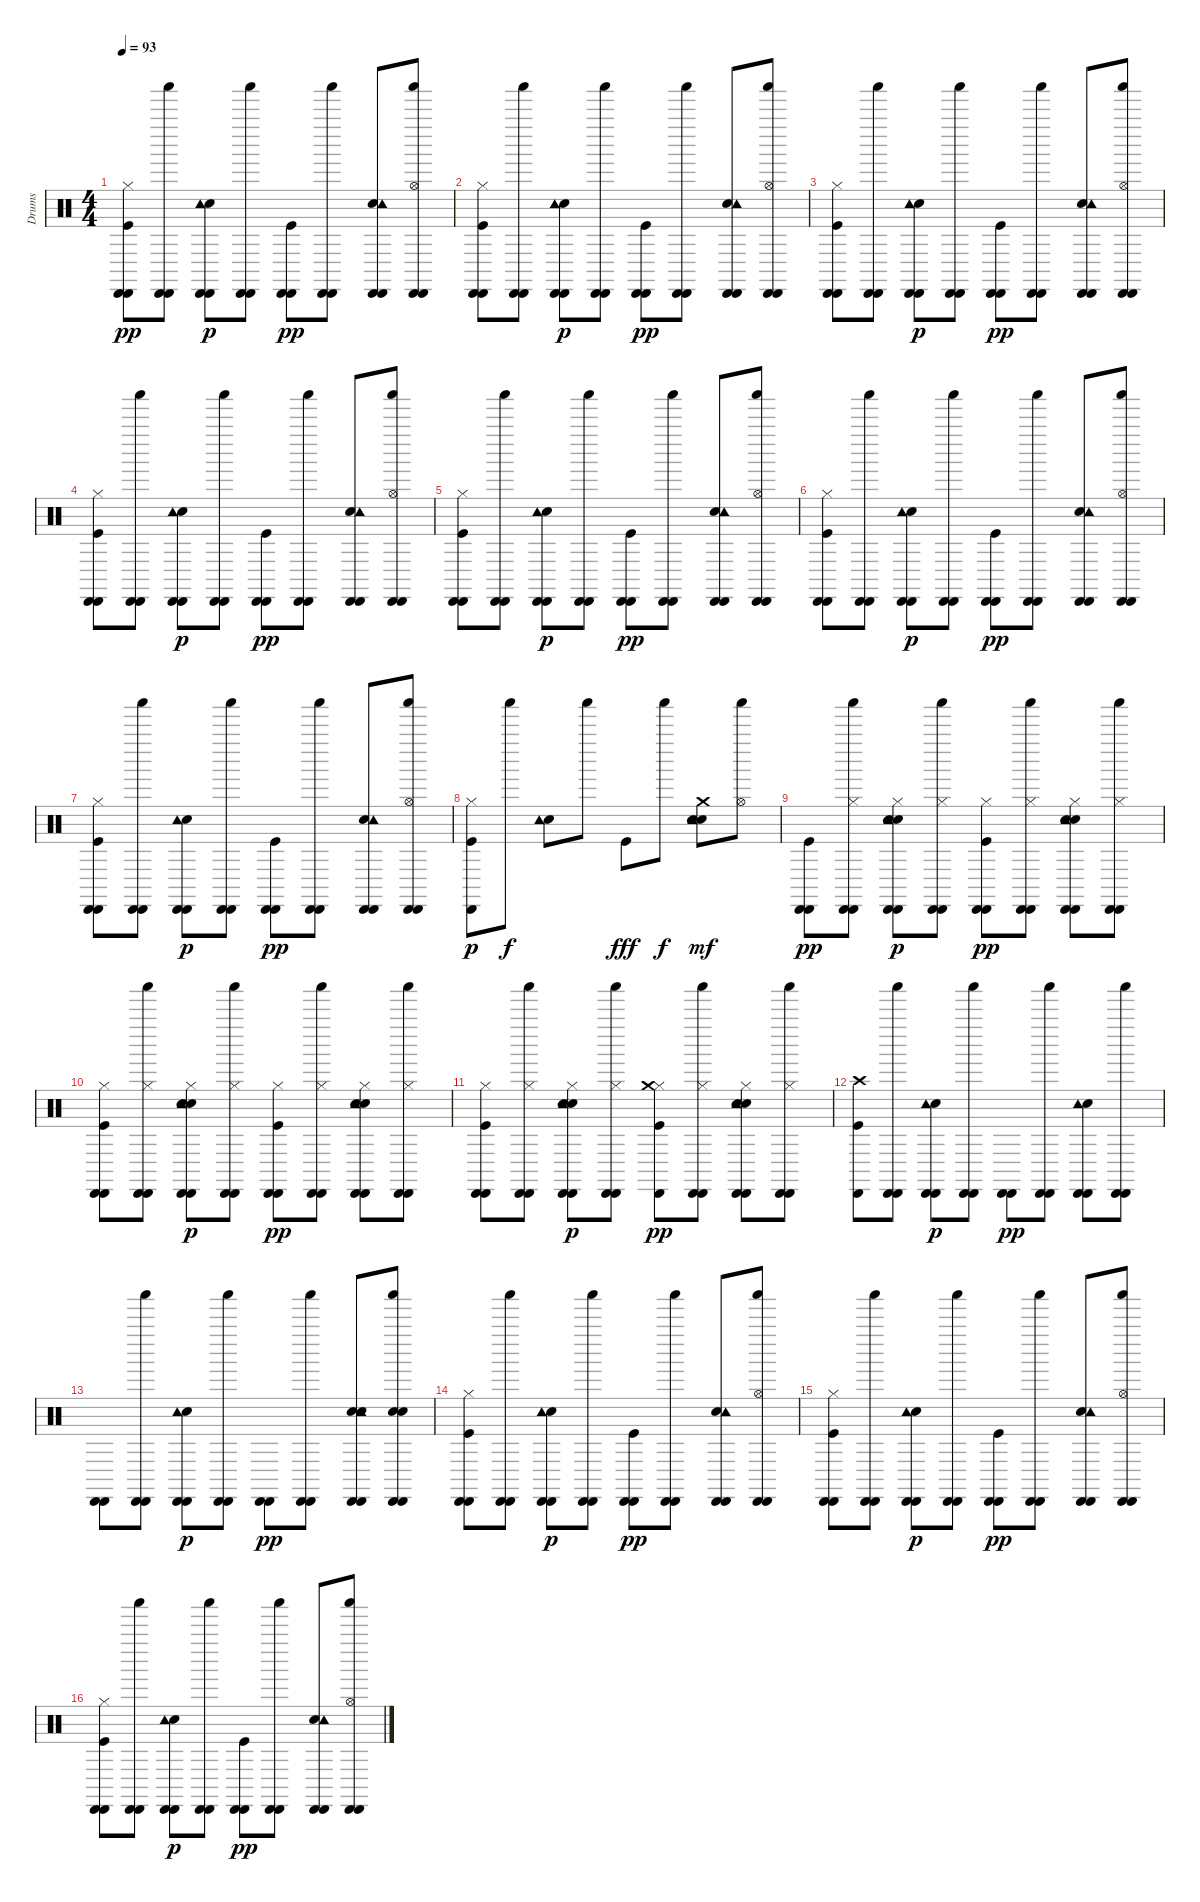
\track ("Drums" "Drums") {instrument percussion}
\staff {score}
\articulation defaults
\ts (4 4)
\tempo 93
\clef neutral
\ks c
("Kick (hit)" "Hi-Hat (closed)" "Cabasa (hit)" "Cabasa (hit)").8{dy pp} ("Cabasa (hit)" "Shaker (hit)" "Cabasa (hit)").8 ("Hand Clap (hit)" "Tambourine (hit)" "Cabasa (hit)" "Cabasa (hit)").8{dy p} ("Cabasa (hit)" "Shaker (hit)" "Cabasa (hit)").8 ("Kick (hit)" "Cabasa (hit)" "Cabasa (hit)").8{dy pp} ("Cabasa (hit)" "Shaker (hit)" "Cabasa (hit)").8 ("Hand Clap (hit)" "Tambourine (hit)" "Cabasa (hit)" "Cabasa (hit)").8 ("Cabasa (hit)" "Shaker (hit)" "Hi-Hat (open)" "Cabasa (hit)").8 |
("Kick (hit)" "Hi-Hat (closed)" "Cabasa (hit)" "Cabasa (hit)").8 ("Cabasa (hit)" "Shaker (hit)" "Cabasa (hit)").8 ("Hand Clap (hit)" "Tambourine (hit)" "Cabasa (hit)" "Cabasa (hit)").8{dy p} ("Cabasa (hit)" "Shaker (hit)" "Cabasa (hit)").8 ("Kick (hit)" "Cabasa (hit)" "Cabasa (hit)").8{dy pp} ("Cabasa (hit)" "Shaker (hit)" "Cabasa (hit)").8 ("Hand Clap (hit)" "Tambourine (hit)" "Cabasa (hit)" "Cabasa (hit)").8 ("Cabasa (hit)" "Shaker (hit)" "Hi-Hat (open)" "Cabasa (hit)").8 |
("Kick (hit)" "Hi-Hat (closed)" "Cabasa (hit)" "Cabasa (hit)").8 ("Cabasa (hit)" "Shaker (hit)" "Cabasa (hit)").8 ("Hand Clap (hit)" "Tambourine (hit)" "Cabasa (hit)" "Cabasa (hit)").8{dy p} ("Cabasa (hit)" "Shaker (hit)" "Cabasa (hit)").8 ("Kick (hit)" "Cabasa (hit)" "Cabasa (hit)").8{dy pp} ("Cabasa (hit)" "Shaker (hit)" "Cabasa (hit)").8 ("Hand Clap (hit)" "Tambourine (hit)" "Cabasa (hit)" "Cabasa (hit)").8 ("Cabasa (hit)" "Shaker (hit)" "Hi-Hat (open)" "Cabasa (hit)").8 |
("Kick (hit)" "Hi-Hat (closed)" "Cabasa (hit)" "Cabasa (hit)").8 ("Cabasa (hit)" "Shaker (hit)" "Cabasa (hit)").8 ("Hand Clap (hit)" "Tambourine (hit)" "Cabasa (hit)" "Cabasa (hit)").8{dy p} ("Cabasa (hit)" "Shaker (hit)" "Cabasa (hit)").8 ("Kick (hit)" "Cabasa (hit)" "Cabasa (hit)").8{dy pp} ("Cabasa (hit)" "Shaker (hit)" "Cabasa (hit)").8 ("Hand Clap (hit)" "Tambourine (hit)" "Cabasa (hit)" "Cabasa (hit)").8 ("Cabasa (hit)" "Shaker (hit)" "Hi-Hat (open)" "Cabasa (hit)").8 |
("Kick (hit)" "Hi-Hat (closed)" "Cabasa (hit)" "Cabasa (hit)").8 ("Cabasa (hit)" "Shaker (hit)" "Cabasa (hit)").8 ("Hand Clap (hit)" "Tambourine (hit)" "Cabasa (hit)" "Cabasa (hit)").8{dy p} ("Cabasa (hit)" "Shaker (hit)" "Cabasa (hit)").8 ("Kick (hit)" "Cabasa (hit)" "Cabasa (hit)").8{dy pp} ("Cabasa (hit)" "Shaker (hit)" "Cabasa (hit)").8 ("Hand Clap (hit)" "Tambourine (hit)" "Cabasa (hit)" "Cabasa (hit)").8 ("Cabasa (hit)" "Shaker (hit)" "Hi-Hat (open)" "Cabasa (hit)").8 |
("Kick (hit)" "Hi-Hat (closed)" "Cabasa (hit)" "Cabasa (hit)").8 ("Cabasa (hit)" "Shaker (hit)" "Cabasa (hit)").8 ("Hand Clap (hit)" "Tambourine (hit)" "Cabasa (hit)" "Cabasa (hit)").8{dy p} ("Cabasa (hit)" "Shaker (hit)" "Cabasa (hit)").8 ("Kick (hit)" "Cabasa (hit)" "Cabasa (hit)").8{dy pp} ("Cabasa (hit)" "Shaker (hit)" "Cabasa (hit)").8 ("Hand Clap (hit)" "Tambourine (hit)" "Cabasa (hit)" "Cabasa (hit)").8 ("Cabasa (hit)" "Shaker (hit)" "Hi-Hat (open)" "Cabasa (hit)").8 |
("Kick (hit)" "Hi-Hat (closed)" "Cabasa (hit)" "Cabasa (hit)").8 ("Cabasa (hit)" "Shaker (hit)" "Cabasa (hit)").8 ("Hand Clap (hit)" "Tambourine (hit)" "Cabasa (hit)" "Cabasa (hit)").8{dy p} ("Cabasa (hit)" "Shaker (hit)" "Cabasa (hit)").8 ("Kick (hit)" "Cabasa (hit)" "Cabasa (hit)").8{dy pp} ("Cabasa (hit)" "Shaker (hit)" "Cabasa (hit)").8 ("Hand Clap (hit)" "Tambourine (hit)" "Cabasa (hit)" "Cabasa (hit)").8 ("Cabasa (hit)" "Shaker (hit)" "Hi-Hat (open)" "Cabasa (hit)").8 |
("Kick (hit)" "Hi-Hat (closed)" "Cabasa (hit)").8{dy p} "Shaker (hit)".8{dy f} ("Hand Clap (hit)" "Tambourine (hit)").8 "Shaker (hit)".8 "Kick (hit)".8{dy fff} "Shaker (hit)".8{dy f} ("Hand Clap (hit)" "Electric Snare (hit)" "Tambourine (hit)" "Crash medium (hit)").8{dy mf} ("Shaker (hit)" "Hi-Hat (open)").8 |
("Kick (hit)" "Cabasa (hit)" "Cabasa (hit)").8{dy pp} ("Hi-Hat (closed)" "Cabasa (hit)" "Shaker (hit)" "Cabasa (hit)").8 ("Hand Clap (hit)" "Electric Snare (hit)" "Hi-Hat (closed)" "Tambourine (hit)" "Cabasa (hit)" "Cabasa (hit)").8{dy p} ("Hi-Hat (closed)" "Cabasa (hit)" "Shaker (hit)" "Cabasa (hit)").8 ("Kick (hit)" "Hi-Hat (closed)" "Cabasa (hit)" "Cabasa (hit)").8{dy pp} ("Hi-Hat (closed)" "Cabasa (hit)" "Shaker (hit)" "Cabasa (hit)").8 ("Hand Clap (hit)" "Electric Snare (hit)" "Hi-Hat (closed)" "Tambourine (hit)" "Cabasa (hit)" "Cabasa (hit)").8 ("Hi-Hat (closed)" "Cabasa (hit)" "Shaker (hit)" "Cabasa (hit)").8 |
("Kick (hit)" "Hi-Hat (closed)" "Cabasa (hit)" "Cabasa (hit)").8 ("Hi-Hat (closed)" "Cabasa (hit)" "Shaker (hit)" "Cabasa (hit)").8 ("Hand Clap (hit)" "Electric Snare (hit)" "Hi-Hat (closed)" "Tambourine (hit)" "Cabasa (hit)" "Cabasa (hit)").8{dy p} ("Hi-Hat (closed)" "Cabasa (hit)" "Shaker (hit)" "Cabasa (hit)").8 ("Kick (hit)" "Hi-Hat (closed)" "Cabasa (hit)" "Cabasa (hit)").8{dy pp} ("Hi-Hat (closed)" "Cabasa (hit)" "Shaker (hit)" "Cabasa (hit)").8 ("Hand Clap (hit)" "Electric Snare (hit)" "Hi-Hat (closed)" "Tambourine (hit)" "Cabasa (hit)" "Cabasa (hit)").8 ("Hi-Hat (closed)" "Cabasa (hit)" "Shaker (hit)" "Cabasa (hit)").8 |
("Kick (hit)" "Hi-Hat (closed)" "Cabasa (hit)" "Cabasa (hit)").8 ("Hi-Hat (closed)" "Cabasa (hit)" "Shaker (hit)" "Cabasa (hit)").8 ("Hand Clap (hit)" "Electric Snare (hit)" "Hi-Hat (closed)" "Tambourine (hit)" "Cabasa (hit)" "Cabasa (hit)").8{dy p} ("Hi-Hat (closed)" "Cabasa (hit)" "Shaker (hit)" "Cabasa (hit)").8 ("Kick (hit)" "Hi-Hat (closed)" "Crash medium (hit)" "Cabasa (hit)").8{dy pp} ("Hi-Hat (closed)" "Cabasa (hit)" "Shaker (hit)" "Cabasa (hit)").8 ("Hand Clap (hit)" "Electric Snare (hit)" "Hi-Hat (closed)" "Tambourine (hit)" "Cabasa (hit)" "Cabasa (hit)").8 ("Hi-Hat (closed)" "Cabasa (hit)" "Shaker (hit)" "Cabasa (hit)").8 |
("Kick (hit)" "Crash high (hit)" "Cabasa (hit)").8 ("Cabasa (hit)" "Shaker (hit)" "Cabasa (hit)").8 ("Hand Clap (hit)" "Tambourine (hit)" "Cabasa (hit)" "Cabasa (hit)").8{dy p} ("Cabasa (hit)" "Shaker (hit)" "Cabasa (hit)").8 ("Cabasa (hit)" "Cabasa (hit)").8{dy pp} ("Cabasa (hit)" "Shaker (hit)" "Cabasa (hit)").8 ("Hand Clap (hit)" "Tambourine (hit)" "Cabasa (hit)" "Cabasa (hit)").8 ("Cabasa (hit)" "Shaker (hit)" "Cabasa (hit)").8 |
("Cabasa (hit)" "Cabasa (hit)").8 ("Cabasa (hit)" "Shaker (hit)" "Cabasa (hit)").8 ("Hand Clap (hit)" "Tambourine (hit)" "Cabasa (hit)" "Cabasa (hit)").8{dy p} ("Cabasa (hit)" "Shaker (hit)" "Cabasa (hit)").8 ("Cabasa (hit)" "Cabasa (hit)").8{dy pp} ("Cabasa (hit)" "Shaker (hit)" "Cabasa (hit)").8 ("Hand Clap (hit)" "Electric Snare (hit)" "Tambourine (hit)" "Cabasa (hit)" "Cabasa (hit)").8 ("Electric Snare (hit)" "Cabasa (hit)" "Shaker (hit)" "Electric Snare (hit)" "Cabasa (hit)").8 |
("Kick (hit)" "Hi-Hat (closed)" "Cabasa (hit)" "Cabasa (hit)").8 ("Cabasa (hit)" "Shaker (hit)" "Cabasa (hit)").8 ("Hand Clap (hit)" "Tambourine (hit)" "Cabasa (hit)" "Cabasa (hit)").8{dy p} ("Cabasa (hit)" "Shaker (hit)" "Cabasa (hit)").8 ("Kick (hit)" "Cabasa (hit)" "Cabasa (hit)").8{dy pp} ("Cabasa (hit)" "Shaker (hit)" "Cabasa (hit)").8 ("Hand Clap (hit)" "Tambourine (hit)" "Cabasa (hit)" "Cabasa (hit)").8 ("Cabasa (hit)" "Shaker (hit)" "Hi-Hat (open)" "Cabasa (hit)").8 |
("Kick (hit)" "Hi-Hat (closed)" "Cabasa (hit)" "Cabasa (hit)").8 ("Cabasa (hit)" "Shaker (hit)" "Cabasa (hit)").8 ("Hand Clap (hit)" "Tambourine (hit)" "Cabasa (hit)" "Cabasa (hit)").8{dy p} ("Cabasa (hit)" "Shaker (hit)" "Cabasa (hit)").8 ("Kick (hit)" "Cabasa (hit)" "Cabasa (hit)").8{dy pp} ("Cabasa (hit)" "Shaker (hit)" "Cabasa (hit)").8 ("Hand Clap (hit)" "Tambourine (hit)" "Cabasa (hit)" "Cabasa (hit)").8 ("Cabasa (hit)" "Shaker (hit)" "Hi-Hat (open)" "Cabasa (hit)").8 |
("Kick (hit)" "Hi-Hat (closed)" "Cabasa (hit)" "Cabasa (hit)").8 ("Cabasa (hit)" "Shaker (hit)" "Cabasa (hit)").8 ("Hand Clap (hit)" "Tambourine (hit)" "Cabasa (hit)" "Cabasa (hit)").8{dy p} ("Cabasa (hit)" "Shaker (hit)" "Cabasa (hit)").8 ("Kick (hit)" "Cabasa (hit)" "Cabasa (hit)").8{dy pp} ("Cabasa (hit)" "Shaker (hit)" "Cabasa (hit)").8 ("Hand Clap (hit)" "Tambourine (hit)" "Cabasa (hit)" "Cabasa (hit)").8 ("Cabasa (hit)" "Shaker (hit)" "Hi-Hat (open)" "Cabasa (hit)").8
